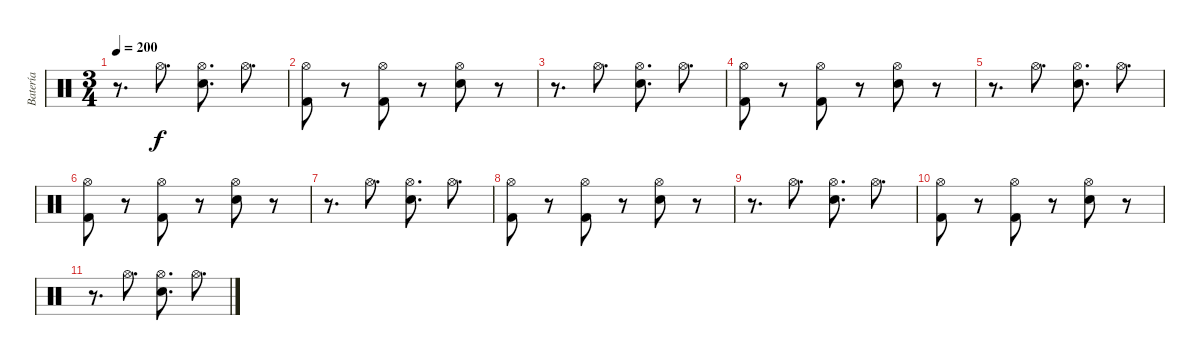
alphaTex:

\track ("Batería" "Batería") {instrument percussion}
\staff {score}
\articulation defaults
\ts (3 4)
\tempo 200
\clef neutral
\ks c
r.8{d dy f} "Hi-Hat (open)".8{d} ("Snare (hit) 2" "Hi-Hat (open)").8{d} "Hi-Hat (open)".8{d} |
("Kick (hit) 2" "Hi-Hat (open)").8 r.8 ("Kick (hit) 2" "Hi-Hat (open)").8 r.8 ("Snare (hit) 2" "Hi-Hat (open)").8 r.8 |
r.8{d} "Hi-Hat (open)".8{d} ("Snare (hit) 2" "Hi-Hat (open)").8{d} "Hi-Hat (open)".8{d} |
("Kick (hit) 2" "Hi-Hat (open)").8 r.8 ("Kick (hit) 2" "Hi-Hat (open)").8 r.8 ("Snare (hit) 2" "Hi-Hat (open)").8 r.8 |
r.8{d} "Hi-Hat (open)".8{d} ("Snare (hit) 2" "Hi-Hat (open)").8{d} "Hi-Hat (open)".8{d} |
("Kick (hit) 2" "Hi-Hat (open)").8 r.8 ("Kick (hit) 2" "Hi-Hat (open)").8 r.8 ("Snare (hit) 2" "Hi-Hat (open)").8 r.8 |
r.8{d} "Hi-Hat (open)".8{d} ("Snare (hit) 2" "Hi-Hat (open)").8{d} "Hi-Hat (open)".8{d} |
("Kick (hit) 2" "Hi-Hat (open)").8 r.8 ("Kick (hit) 2" "Hi-Hat (open)").8 r.8 ("Snare (hit) 2" "Hi-Hat (open)").8 r.8 |
r.8{d} "Hi-Hat (open)".8{d} ("Snare (hit) 2" "Hi-Hat (open)").8{d} "Hi-Hat (open)".8{d} |
("Kick (hit) 2" "Hi-Hat (open)").8 r.8 ("Kick (hit) 2" "Hi-Hat (open)").8 r.8 ("Snare (hit) 2" "Hi-Hat (open)").8 r.8 |
r.8{d} "Hi-Hat (open)".8{d} ("Snare (hit) 2" "Hi-Hat (open)").8{d} "Hi-Hat (open)".8{d}
